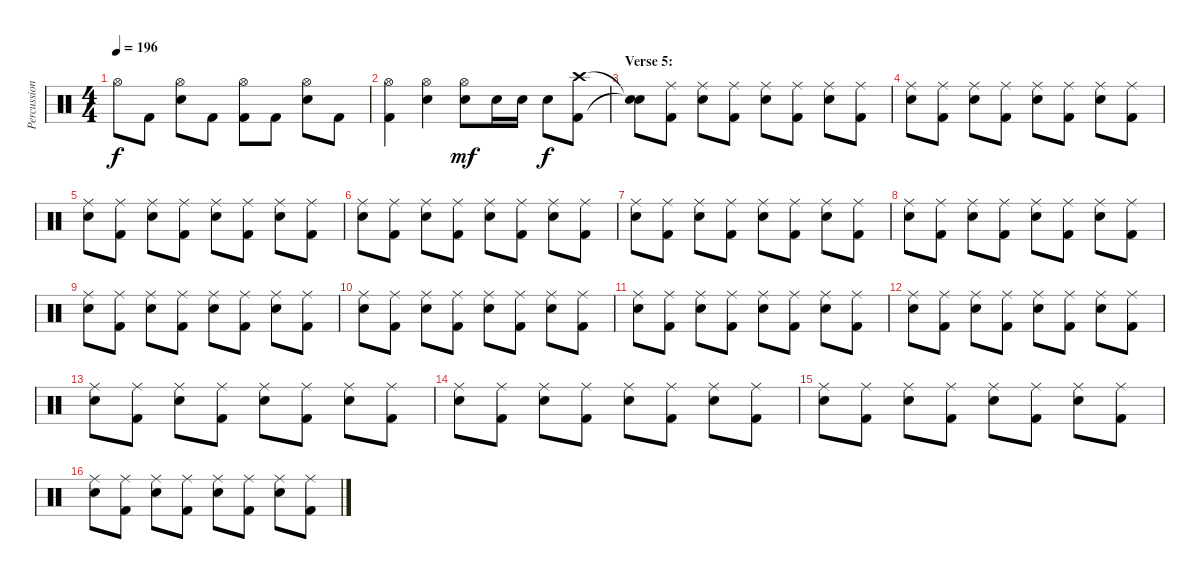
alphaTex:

\track ("Percussion" "Percussion") {instrument percussion}
\staff {score}
\articulation defaults
\ts (4 4)
\tempo 196
\clef neutral
\ks c "Hi-Hat (open)".8{dy f} "Kick (hit) 2".8
("Hi-Hat (open)" "Snare (hit) 2").8 "Kick (hit) 2".8 ("Hi-Hat (open)" "Kick (hit) 2").8 "Kick (hit) 2".8 ("Hi-Hat (open)" "Snare (hit) 2").8 "Kick (hit) 2".8 |
("Hi-Hat (open)" "Kick (hit) 2").4 ("Hi-Hat (open)" "Snare (hit) 2").4 ("Hi-Hat (open)" "Snare (hit) 2").8{dy mf} "Snare (hit) 2".16 "Snare (hit) 2".16 "Snare (hit) 2".8{dy f} ("Crash high (hit)" "Kick (hit) 2").8 |
\section ("" "Verse 5:")
("Snare (hit)"{t} "Snare (hit)"{t}).8 ("Ride (middle)" "Kick (hit) 2").8 ("Ride (middle)" "Snare (hit) 2").8 ("Ride (middle)" "Kick (hit) 2").8 ("Ride (middle)" "Snare (hit) 2").8 ("Ride (middle)" "Kick (hit) 2").8 ("Ride (middle)" "Snare (hit) 2").8 ("Ride (middle)" "Kick (hit) 2").8 |
("Ride (middle)" "Snare (hit) 2").8 ("Ride (middle)" "Kick (hit) 2").8 ("Ride (middle)" "Snare (hit) 2").8 ("Ride (middle)" "Kick (hit) 2").8 ("Ride (middle)" "Snare (hit) 2").8 ("Ride (middle)" "Kick (hit) 2").8 ("Ride (middle)" "Snare (hit) 2").8 ("Ride (middle)" "Kick (hit) 2").8 |
("Ride (middle)" "Snare (hit) 2").8 ("Ride (middle)" "Kick (hit) 2").8 ("Ride (middle)" "Snare (hit) 2").8 ("Ride (middle)" "Kick (hit) 2").8 ("Ride (middle)" "Snare (hit) 2").8 ("Ride (middle)" "Kick (hit) 2").8 ("Ride (middle)" "Snare (hit) 2").8 ("Ride (middle)" "Kick (hit) 2").8 |
("Ride (middle)" "Snare (hit) 2").8 ("Ride (middle)" "Kick (hit) 2").8 ("Ride (middle)" "Snare (hit) 2").8 ("Ride (middle)" "Kick (hit) 2").8 ("Ride (middle)" "Snare (hit) 2").8 ("Ride (middle)" "Kick (hit) 2").8 ("Ride (middle)" "Snare (hit) 2").8 ("Ride (middle)" "Kick (hit) 2").8 |
("Ride (middle)" "Snare (hit) 2").8 ("Ride (middle)" "Kick (hit) 2").8 ("Ride (middle)" "Snare (hit) 2").8 ("Ride (middle)" "Kick (hit) 2").8 ("Ride (middle)" "Snare (hit) 2").8 ("Ride (middle)" "Kick (hit) 2").8 ("Ride (middle)" "Snare (hit) 2").8 ("Ride (middle)" "Kick (hit) 2").8 |
("Ride (middle)" "Snare (hit) 2").8 ("Ride (middle)" "Kick (hit) 2").8 ("Ride (middle)" "Snare (hit) 2").8 ("Ride (middle)" "Kick (hit) 2").8 ("Ride (middle)" "Snare (hit) 2").8 ("Ride (middle)" "Kick (hit) 2").8 ("Ride (middle)" "Snare (hit) 2").8 ("Ride (middle)" "Kick (hit) 2").8 |
("Ride (middle)" "Snare (hit) 2").8 ("Ride (middle)" "Kick (hit) 2").8 ("Ride (middle)" "Snare (hit) 2").8 ("Ride (middle)" "Kick (hit) 2").8 ("Ride (middle)" "Snare (hit) 2").8 ("Ride (middle)" "Kick (hit) 2").8 ("Ride (middle)" "Snare (hit) 2").8 ("Ride (middle)" "Kick (hit) 2").8 |
("Ride (middle)" "Snare (hit) 2").8 ("Ride (middle)" "Kick (hit) 2").8 ("Ride (middle)" "Snare (hit) 2").8 ("Ride (middle)" "Kick (hit) 2").8 ("Ride (middle)" "Snare (hit) 2").8 ("Ride (middle)" "Kick (hit) 2").8 ("Ride (middle)" "Snare (hit) 2").8 ("Ride (middle)" "Kick (hit) 2").8 |
("Ride (middle)" "Snare (hit) 2").8 ("Ride (middle)" "Kick (hit) 2").8 ("Ride (middle)" "Snare (hit) 2").8 ("Ride (middle)" "Kick (hit) 2").8 ("Ride (middle)" "Snare (hit) 2").8 ("Ride (middle)" "Kick (hit) 2").8 ("Ride (middle)" "Snare (hit) 2").8 ("Ride (middle)" "Kick (hit) 2").8 |
("Ride (middle)" "Snare (hit) 2").8 ("Ride (middle)" "Kick (hit) 2").8 ("Ride (middle)" "Snare (hit) 2").8 ("Ride (middle)" "Kick (hit) 2").8 ("Ride (middle)" "Snare (hit) 2").8 ("Ride (middle)" "Kick (hit) 2").8 ("Ride (middle)" "Snare (hit) 2").8 ("Ride (middle)" "Kick (hit) 2").8 |
("Ride (middle)" "Snare (hit) 2").8 ("Ride (middle)" "Kick (hit) 2").8 ("Ride (middle)" "Snare (hit) 2").8 ("Ride (middle)" "Kick (hit) 2").8 ("Ride (middle)" "Snare (hit) 2").8 ("Ride (middle)" "Kick (hit) 2").8 ("Ride (middle)" "Snare (hit) 2").8 ("Ride (middle)" "Kick (hit) 2").8 |
("Ride (middle)" "Snare (hit) 2").8 ("Ride (middle)" "Kick (hit) 2").8 ("Ride (middle)" "Snare (hit) 2").8 ("Ride (middle)" "Kick (hit) 2").8 ("Ride (middle)" "Snare (hit) 2").8 ("Ride (middle)" "Kick (hit) 2").8 ("Ride (middle)" "Snare (hit) 2").8 ("Ride (middle)" "Kick (hit) 2").8 |
("Ride (middle)" "Snare (hit) 2").8 ("Ride (middle)" "Kick (hit) 2").8 ("Ride (middle)" "Snare (hit) 2").8 ("Ride (middle)" "Kick (hit) 2").8 ("Ride (middle)" "Snare (hit) 2").8 ("Ride (middle)" "Kick (hit) 2").8 ("Ride (middle)" "Snare (hit) 2").8 ("Ride (middle)" "Kick (hit) 2").8 |
("Ride (middle)" "Snare (hit) 2").8 ("Ride (middle)" "Kick (hit) 2").8 ("Ride (middle)" "Snare (hit) 2").8 ("Ride (middle)" "Kick (hit) 2").8 ("Ride (middle)" "Snare (hit) 2").8 ("Ride (middle)" "Kick (hit) 2").8 ("Ride (middle)" "Snare (hit) 2").8 ("Ride (middle)" "Kick (hit) 2").8
